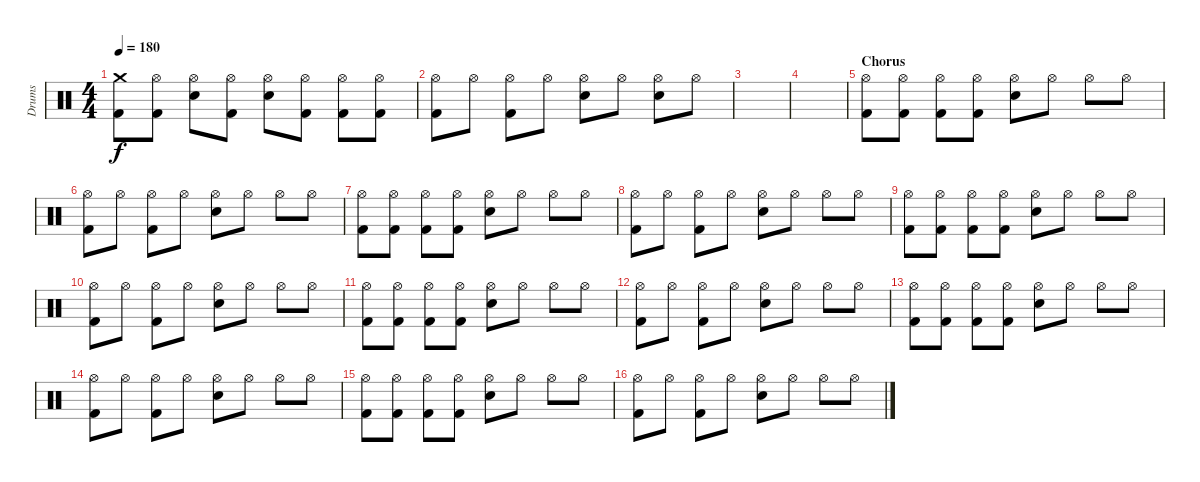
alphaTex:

\track ("Drums" "Drums") {instrument percussion}
\staff {score}
\articulation defaults
\ts (4 4)
\tempo 180
\clef neutral
\ks c
("Crash medium (hit)" "Kick (hit) 2").8{dy f} ("Hi-Hat (open)" "Kick (hit) 2").8 ("Hi-Hat (open)" "Electric Snare (hit)").8 ("Hi-Hat (open)" "Kick (hit) 2").8 ("Hi-Hat (open)" "Electric Snare (hit)").8 ("Hi-Hat (open)" "Kick (hit) 2").8 ("Hi-Hat (open)" "Kick (hit) 2").8 ("Hi-Hat (open)" "Kick (hit) 2").8 |
("Hi-Hat (open)" "Kick (hit) 2").8 "Hi-Hat (open)".8 ("Hi-Hat (open)" "Kick (hit) 2").8 "Hi-Hat (open)".8 ("Hi-Hat (open)" "Electric Snare (hit)").8 "Hi-Hat (open)".8 ("Hi-Hat (open)" "Electric Snare (hit)").8 "Hi-Hat (open)".8 |
|
|
\section ("" "Chorus")
("Hi-Hat (open)" "Kick (hit) 2").8 ("Hi-Hat (open)" "Kick (hit) 2").8 ("Hi-Hat (open)" "Kick (hit) 2").8 ("Hi-Hat (open)" "Kick (hit) 2").8 ("Hi-Hat (open)" "Electric Snare (hit)").8 "Hi-Hat (open)".8 "Hi-Hat (open)".8 "Hi-Hat (open)".8 |
("Hi-Hat (open)" "Kick (hit) 2").8 "Hi-Hat (open)".8 ("Hi-Hat (open)" "Kick (hit) 2").8 "Hi-Hat (open)".8 ("Hi-Hat (open)" "Electric Snare (hit)").8 "Hi-Hat (open)".8 "Hi-Hat (open)".8 "Hi-Hat (open)".8 |
("Hi-Hat (open)" "Kick (hit) 2").8 ("Hi-Hat (open)" "Kick (hit) 2").8 ("Hi-Hat (open)" "Kick (hit) 2").8 ("Hi-Hat (open)" "Kick (hit) 2").8 ("Hi-Hat (open)" "Electric Snare (hit)").8 "Hi-Hat (open)".8 "Hi-Hat (open)".8 "Hi-Hat (open)".8 |
("Hi-Hat (open)" "Kick (hit) 2").8 "Hi-Hat (open)".8 ("Hi-Hat (open)" "Kick (hit) 2").8 "Hi-Hat (open)".8 ("Hi-Hat (open)" "Electric Snare (hit)").8 "Hi-Hat (open)".8 "Hi-Hat (open)".8 "Hi-Hat (open)".8 |
("Hi-Hat (open)" "Kick (hit) 2").8 ("Hi-Hat (open)" "Kick (hit) 2").8 ("Hi-Hat (open)" "Kick (hit) 2").8 ("Hi-Hat (open)" "Kick (hit) 2").8 ("Hi-Hat (open)" "Electric Snare (hit)").8 "Hi-Hat (open)".8 "Hi-Hat (open)".8 "Hi-Hat (open)".8 |
("Hi-Hat (open)" "Kick (hit) 2").8 "Hi-Hat (open)".8 ("Hi-Hat (open)" "Kick (hit) 2").8 "Hi-Hat (open)".8 ("Hi-Hat (open)" "Electric Snare (hit)").8 "Hi-Hat (open)".8 "Hi-Hat (open)".8 "Hi-Hat (open)".8 |
("Hi-Hat (open)" "Kick (hit) 2").8 ("Hi-Hat (open)" "Kick (hit) 2").8 ("Hi-Hat (open)" "Kick (hit) 2").8 ("Hi-Hat (open)" "Kick (hit) 2").8 ("Hi-Hat (open)" "Electric Snare (hit)").8 "Hi-Hat (open)".8 "Hi-Hat (open)".8 "Hi-Hat (open)".8 |
("Hi-Hat (open)" "Kick (hit) 2").8 "Hi-Hat (open)".8 ("Hi-Hat (open)" "Kick (hit) 2").8 "Hi-Hat (open)".8 ("Hi-Hat (open)" "Electric Snare (hit)").8 "Hi-Hat (open)".8 "Hi-Hat (open)".8 "Hi-Hat (open)".8 |
("Hi-Hat (open)" "Kick (hit) 2").8 ("Hi-Hat (open)" "Kick (hit) 2").8 ("Hi-Hat (open)" "Kick (hit) 2").8 ("Hi-Hat (open)" "Kick (hit) 2").8 ("Hi-Hat (open)" "Electric Snare (hit)").8 "Hi-Hat (open)".8 "Hi-Hat (open)".8 "Hi-Hat (open)".8 |
("Hi-Hat (open)" "Kick (hit) 2").8 "Hi-Hat (open)".8 ("Hi-Hat (open)" "Kick (hit) 2").8 "Hi-Hat (open)".8 ("Hi-Hat (open)" "Electric Snare (hit)").8 "Hi-Hat (open)".8 "Hi-Hat (open)".8 "Hi-Hat (open)".8 |
("Hi-Hat (open)" "Kick (hit) 2").8 ("Hi-Hat (open)" "Kick (hit) 2").8 ("Hi-Hat (open)" "Kick (hit) 2").8 ("Hi-Hat (open)" "Kick (hit) 2").8 ("Hi-Hat (open)" "Electric Snare (hit)").8 "Hi-Hat (open)".8 "Hi-Hat (open)".8 "Hi-Hat (open)".8 |
("Hi-Hat (open)" "Kick (hit) 2").8 "Hi-Hat (open)".8 ("Hi-Hat (open)" "Kick (hit) 2").8 "Hi-Hat (open)".8 ("Hi-Hat (open)" "Electric Snare (hit)").8 "Hi-Hat (open)".8 "Hi-Hat (open)".8 "Hi-Hat (open)".8
